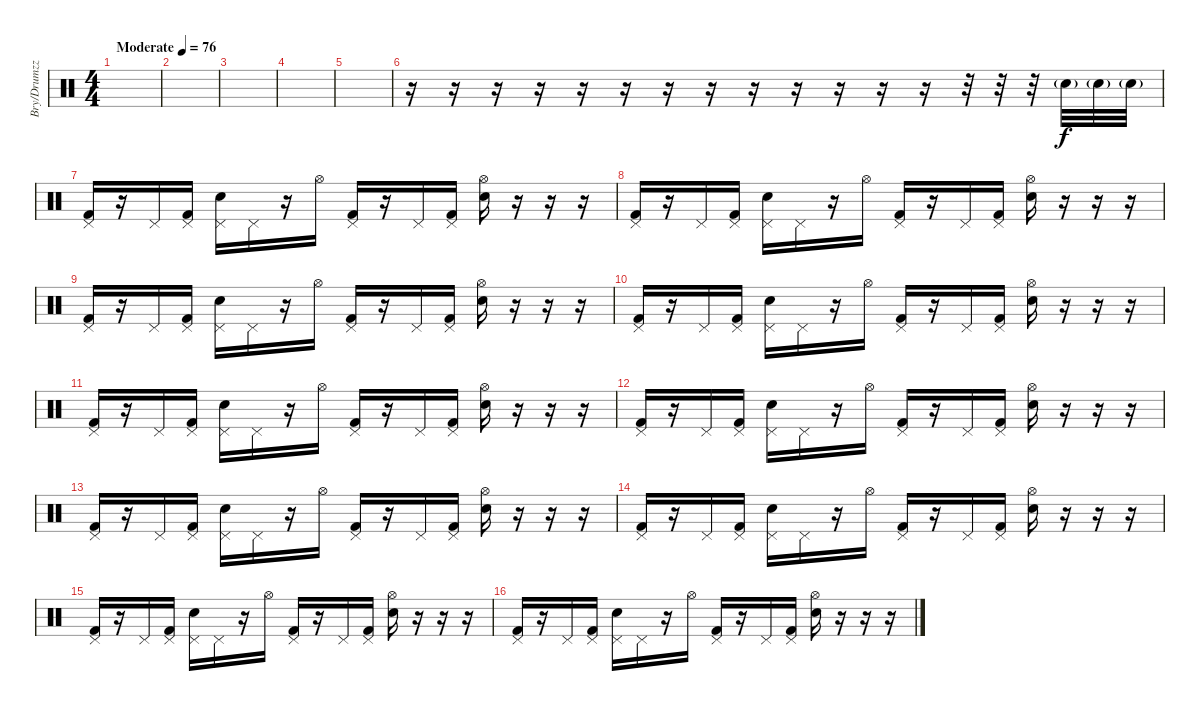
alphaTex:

\track ("Bry/Drumzzz" "Bry/Drumzz") {instrument percussion}
\staff {score}
\articulation defaults
\ts (4 4)
\tempo (76 "Moderate")
\clef neutral
\ks c
|
|
|
|
|
r.16 r.16 r.16 r.16 r.16 r.16 r.16 r.16 r.16 r.16 r.16 r.16 r.16 r.32 r.32 r.32 "Snare (hit) 2"{g}.32 "Snare (hit) 2"{g}.32 "Snare (hit) 2"{g}.32 |
("Pedal Hi-Hat (hit)" "Kick (hit) 2").16{dy f} r.16 "Pedal Hi-Hat (hit)".16 ("Pedal Hi-Hat (hit)" "Kick (hit) 2").16 ("Pedal Hi-Hat (hit)" "Snare (hit) 2").16 "Pedal Hi-Hat (hit)".16 r.16 "Hi-Hat (open)".16 ("Pedal Hi-Hat (hit)" "Kick (hit) 2").16 r.16 "Pedal Hi-Hat (hit)".16 ("Pedal Hi-Hat (hit)" "Kick (hit) 2").16 ("Hi-Hat (open)" "Snare (hit) 2").16 r.16 r.16 r.16 |
("Pedal Hi-Hat (hit)" "Kick (hit) 2").16 r.16 "Pedal Hi-Hat (hit)".16 ("Pedal Hi-Hat (hit)" "Kick (hit) 2").16 ("Pedal Hi-Hat (hit)" "Snare (hit) 2").16 "Pedal Hi-Hat (hit)".16 r.16 "Hi-Hat (open)".16 ("Pedal Hi-Hat (hit)" "Kick (hit) 2").16 r.16 "Pedal Hi-Hat (hit)".16 ("Pedal Hi-Hat (hit)" "Kick (hit) 2").16 ("Hi-Hat (open)" "Snare (hit) 2").16 r.16 r.16 r.16 |
("Pedal Hi-Hat (hit)" "Kick (hit) 2").16 r.16 "Pedal Hi-Hat (hit)".16 ("Pedal Hi-Hat (hit)" "Kick (hit) 2").16 ("Pedal Hi-Hat (hit)" "Snare (hit) 2").16 "Pedal Hi-Hat (hit)".16 r.16 "Hi-Hat (open)".16 ("Pedal Hi-Hat (hit)" "Kick (hit) 2").16 r.16 "Pedal Hi-Hat (hit)".16 ("Pedal Hi-Hat (hit)" "Kick (hit) 2").16 ("Hi-Hat (open)" "Snare (hit) 2").16 r.16 r.16 r.16 |
("Pedal Hi-Hat (hit)" "Kick (hit) 2").16 r.16 "Pedal Hi-Hat (hit)".16 ("Pedal Hi-Hat (hit)" "Kick (hit) 2").16 ("Pedal Hi-Hat (hit)" "Snare (hit) 2").16 "Pedal Hi-Hat (hit)".16 r.16 "Hi-Hat (open)".16 ("Pedal Hi-Hat (hit)" "Kick (hit) 2").16 r.16 "Pedal Hi-Hat (hit)".16 ("Pedal Hi-Hat (hit)" "Kick (hit) 2").16 ("Hi-Hat (open)" "Snare (hit) 2").16 r.16 r.16 r.16 |
("Pedal Hi-Hat (hit)" "Kick (hit) 2").16 r.16 "Pedal Hi-Hat (hit)".16 ("Pedal Hi-Hat (hit)" "Kick (hit) 2").16 ("Pedal Hi-Hat (hit)" "Snare (hit) 2").16 "Pedal Hi-Hat (hit)".16 r.16 "Hi-Hat (open)".16 ("Pedal Hi-Hat (hit)" "Kick (hit) 2").16 r.16 "Pedal Hi-Hat (hit)".16 ("Pedal Hi-Hat (hit)" "Kick (hit) 2").16 ("Hi-Hat (open)" "Snare (hit) 2").16 r.16 r.16 r.16 |
("Pedal Hi-Hat (hit)" "Kick (hit) 2").16 r.16 "Pedal Hi-Hat (hit)".16 ("Pedal Hi-Hat (hit)" "Kick (hit) 2").16 ("Pedal Hi-Hat (hit)" "Snare (hit) 2").16 "Pedal Hi-Hat (hit)".16 r.16 "Hi-Hat (open)".16 ("Pedal Hi-Hat (hit)" "Kick (hit) 2").16 r.16 "Pedal Hi-Hat (hit)".16 ("Pedal Hi-Hat (hit)" "Kick (hit) 2").16 ("Hi-Hat (open)" "Snare (hit) 2").16 r.16 r.16 r.16 |
("Pedal Hi-Hat (hit)" "Kick (hit) 2").16 r.16 "Pedal Hi-Hat (hit)".16 ("Pedal Hi-Hat (hit)" "Kick (hit) 2").16 ("Pedal Hi-Hat (hit)" "Snare (hit) 2").16 "Pedal Hi-Hat (hit)".16 r.16 "Hi-Hat (open)".16 ("Pedal Hi-Hat (hit)" "Kick (hit) 2").16 r.16 "Pedal Hi-Hat (hit)".16 ("Pedal Hi-Hat (hit)" "Kick (hit) 2").16 ("Hi-Hat (open)" "Snare (hit) 2").16 r.16 r.16 r.16 |
("Pedal Hi-Hat (hit)" "Kick (hit) 2").16 r.16 "Pedal Hi-Hat (hit)".16 ("Pedal Hi-Hat (hit)" "Kick (hit) 2").16 ("Pedal Hi-Hat (hit)" "Snare (hit) 2").16 "Pedal Hi-Hat (hit)".16 r.16 "Hi-Hat (open)".16 ("Pedal Hi-Hat (hit)" "Kick (hit) 2").16 r.16 "Pedal Hi-Hat (hit)".16 ("Pedal Hi-Hat (hit)" "Kick (hit) 2").16 ("Hi-Hat (open)" "Snare (hit) 2").16 r.16 r.16 r.16 |
("Pedal Hi-Hat (hit)" "Kick (hit) 2").16 r.16 "Pedal Hi-Hat (hit)".16 ("Pedal Hi-Hat (hit)" "Kick (hit) 2").16 ("Pedal Hi-Hat (hit)" "Snare (hit) 2").16 "Pedal Hi-Hat (hit)".16 r.16 "Hi-Hat (open)".16 ("Pedal Hi-Hat (hit)" "Kick (hit) 2").16 r.16 "Pedal Hi-Hat (hit)".16 ("Pedal Hi-Hat (hit)" "Kick (hit) 2").16 ("Hi-Hat (open)" "Snare (hit) 2").16 r.16 r.16 r.16 |
("Pedal Hi-Hat (hit)" "Kick (hit) 2").16 r.16 "Pedal Hi-Hat (hit)".16 ("Pedal Hi-Hat (hit)" "Kick (hit) 2").16 ("Pedal Hi-Hat (hit)" "Snare (hit) 2").16 "Pedal Hi-Hat (hit)".16 r.16 "Hi-Hat (open)".16 ("Pedal Hi-Hat (hit)" "Kick (hit) 2").16 r.16 "Pedal Hi-Hat (hit)".16 ("Pedal Hi-Hat (hit)" "Kick (hit) 2").16 ("Hi-Hat (open)" "Snare (hit) 2").16 r.16 r.16 r.16
